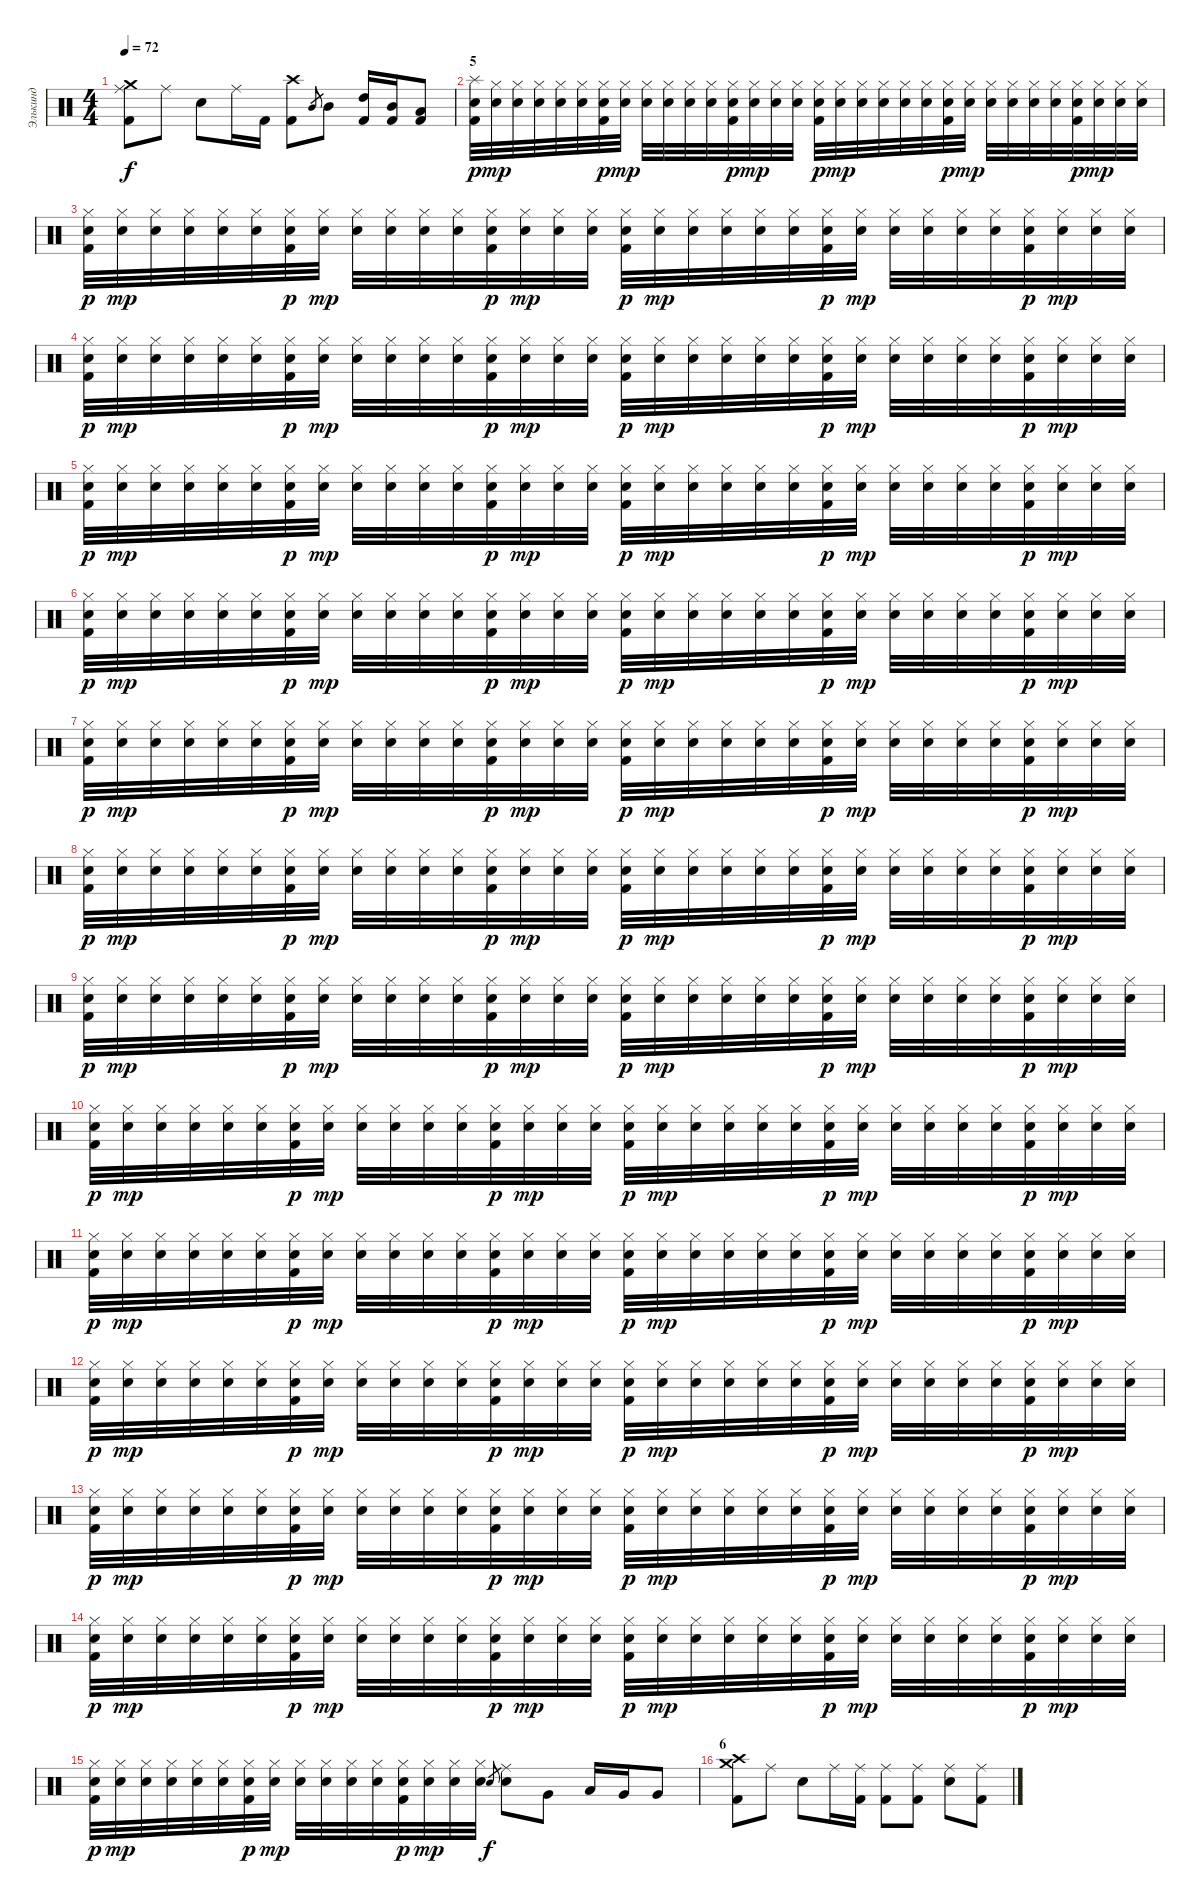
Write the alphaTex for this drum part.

\track ("Элькинд" "Элькинд") {instrument percussion}
\staff {score}
\articulation defaults
\ts (4 4)
\tempo 72
\clef neutral
\ks c
("Crash medium (hit)" "Ride (middle)" "Kick (hit) 2").8{dy f} "Ride (middle)".8 "Snare (hit) 2".8 "Ride (middle)".16 "Kick (hit) 2".16 ("Crash high (hit)" "Kick (hit) 2").8 "Mid Tom (hit)".8{gr} "Mid Tom (hit)".8 ("High Tom (hit)" "Kick (hit) 2").16 ("Mid Tom (hit)" "Kick (hit) 2").16 ("Low Tom (hit)" "Kick (hit) 2").8 |
\section ("" "5")
("Splash (hit)" "Snare (hit)"{x} "Kick (hit) 2").32{dy p volume 11} ("Hi-Hat (closed)" "Snare (hit)"{x}).32{dy mp} ("Hi-Hat (closed)" "Snare (hit)"{x}).32 ("Hi-Hat (closed)" "Snare (hit)"{x}).32 ("Hi-Hat (closed)" "Snare (hit)"{x}).32 ("Hi-Hat (closed)" "Snare (hit)"{x}).32 ("Hi-Hat (closed)" "Snare (hit)"{x} "Kick (hit) 2").32{dy p} ("Hi-Hat (closed)" "Snare (hit)"{x}).32{dy mp} ("Hi-Hat (closed)" "Snare (hit)"{x}).32 ("Hi-Hat (closed)" "Snare (hit)"{x}).32 ("Hi-Hat (closed)" "Snare (hit)"{x}).32 ("Hi-Hat (closed)" "Snare (hit)"{x}).32 ("Hi-Hat (closed)" "Snare (hit)"{x} "Kick (hit) 2").32{dy p} ("Hi-Hat (closed)" "Snare (hit)"{x}).32{dy mp} ("Hi-Hat (closed)" "Snare (hit)"{x}).32 ("Hi-Hat (closed)" "Snare (hit)"{x}).32 ("Hi-Hat (closed)" "Snare (hit)"{x} "Kick (hit) 2").32{dy p} ("Hi-Hat (closed)" "Snare (hit)"{x}).32{dy mp} ("Hi-Hat (closed)" "Snare (hit)"{x}).32 ("Hi-Hat (closed)" "Snare (hit)"{x}).32 ("Hi-Hat (closed)" "Snare (hit)"{x}).32 ("Hi-Hat (closed)" "Snare (hit)"{x}).32 ("Hi-Hat (closed)" "Snare (hit)"{x} "Kick (hit) 2").32{dy p} ("Hi-Hat (closed)" "Snare (hit)"{x}).32{dy mp} ("Hi-Hat (closed)" "Snare (hit)"{x}).32 ("Hi-Hat (closed)" "Snare (hit)"{x}).32 ("Hi-Hat (closed)" "Snare (hit)"{x}).32 ("Hi-Hat (closed)" "Snare (hit)"{x}).32 ("Hi-Hat (closed)" "Snare (hit)"{x} "Kick (hit) 2").32{dy p} ("Hi-Hat (closed)" "Snare (hit)"{x}).32{dy mp} ("Hi-Hat (closed)" "Snare (hit)"{x}).32 ("Hi-Hat (closed)" "Snare (hit)"{x}).32 |
("Hi-Hat (closed)" "Snare (hit)"{x} "Kick (hit) 2").32{dy p} ("Hi-Hat (closed)" "Snare (hit)"{x}).32{dy mp} ("Hi-Hat (closed)" "Snare (hit)"{x}).32 ("Hi-Hat (closed)" "Snare (hit)"{x}).32 ("Hi-Hat (closed)" "Snare (hit)"{x}).32 ("Hi-Hat (closed)" "Snare (hit)"{x}).32 ("Hi-Hat (closed)" "Snare (hit)"{x} "Kick (hit) 2").32{dy p} ("Hi-Hat (closed)" "Snare (hit)"{x}).32{dy mp} ("Hi-Hat (closed)" "Snare (hit)"{x}).32 ("Hi-Hat (closed)" "Snare (hit)"{x}).32 ("Hi-Hat (closed)" "Snare (hit)"{x}).32 ("Hi-Hat (closed)" "Snare (hit)"{x}).32 ("Hi-Hat (closed)" "Snare (hit)"{x} "Kick (hit) 2").32{dy p} ("Hi-Hat (closed)" "Snare (hit)"{x}).32{dy mp} ("Hi-Hat (closed)" "Snare (hit)"{x}).32 ("Hi-Hat (closed)" "Snare (hit)"{x}).32 ("Hi-Hat (closed)" "Snare (hit)"{x} "Kick (hit) 2").32{dy p} ("Hi-Hat (closed)" "Snare (hit)"{x}).32{dy mp} ("Hi-Hat (closed)" "Snare (hit)"{x}).32 ("Hi-Hat (closed)" "Snare (hit)"{x}).32 ("Hi-Hat (closed)" "Snare (hit)"{x}).32 ("Hi-Hat (closed)" "Snare (hit)"{x}).32 ("Hi-Hat (closed)" "Snare (hit)"{x} "Kick (hit) 2").32{dy p} ("Hi-Hat (closed)" "Snare (hit)"{x}).32{dy mp} ("Hi-Hat (closed)" "Snare (hit)"{x}).32 ("Hi-Hat (closed)" "Snare (hit)"{x}).32 ("Hi-Hat (closed)" "Snare (hit)"{x}).32 ("Hi-Hat (closed)" "Snare (hit)"{x}).32 ("Hi-Hat (closed)" "Snare (hit)"{x} "Kick (hit) 2").32{dy p} ("Hi-Hat (closed)" "Snare (hit)"{x}).32{dy mp} ("Hi-Hat (closed)" "Snare (hit)"{x}).32 ("Hi-Hat (closed)" "Snare (hit)"{x}).32 |
("Hi-Hat (closed)" "Snare (hit)"{x} "Kick (hit) 2").32{dy p} ("Hi-Hat (closed)" "Snare (hit)"{x}).32{dy mp} ("Hi-Hat (closed)" "Snare (hit)"{x}).32 ("Hi-Hat (closed)" "Snare (hit)"{x}).32 ("Hi-Hat (closed)" "Snare (hit)"{x}).32 ("Hi-Hat (closed)" "Snare (hit)"{x}).32 ("Hi-Hat (closed)" "Snare (hit)"{x} "Kick (hit) 2").32{dy p} ("Hi-Hat (closed)" "Snare (hit)"{x}).32{dy mp} ("Hi-Hat (closed)" "Snare (hit)"{x}).32 ("Hi-Hat (closed)" "Snare (hit)"{x}).32 ("Hi-Hat (closed)" "Snare (hit)"{x}).32 ("Hi-Hat (closed)" "Snare (hit)"{x}).32 ("Hi-Hat (closed)" "Snare (hit)"{x} "Kick (hit) 2").32{dy p} ("Hi-Hat (closed)" "Snare (hit)"{x}).32{dy mp} ("Hi-Hat (closed)" "Snare (hit)"{x}).32 ("Hi-Hat (closed)" "Snare (hit)"{x}).32 ("Hi-Hat (closed)" "Snare (hit)"{x} "Kick (hit) 2").32{dy p} ("Hi-Hat (closed)" "Snare (hit)"{x}).32{dy mp} ("Hi-Hat (closed)" "Snare (hit)"{x}).32 ("Hi-Hat (closed)" "Snare (hit)"{x}).32 ("Hi-Hat (closed)" "Snare (hit)"{x}).32 ("Hi-Hat (closed)" "Snare (hit)"{x}).32 ("Hi-Hat (closed)" "Snare (hit)"{x} "Kick (hit) 2").32{dy p} ("Hi-Hat (closed)" "Snare (hit)"{x}).32{dy mp} ("Hi-Hat (closed)" "Snare (hit)"{x}).32 ("Hi-Hat (closed)" "Snare (hit)"{x}).32 ("Hi-Hat (closed)" "Snare (hit)"{x}).32 ("Hi-Hat (closed)" "Snare (hit)"{x}).32 ("Hi-Hat (closed)" "Snare (hit)"{x} "Kick (hit) 2").32{dy p} ("Hi-Hat (closed)" "Snare (hit)"{x}).32{dy mp} ("Hi-Hat (closed)" "Snare (hit)"{x}).32 ("Hi-Hat (closed)" "Snare (hit)"{x}).32 |
("Hi-Hat (closed)" "Snare (hit)"{x} "Kick (hit) 2").32{dy p} ("Hi-Hat (closed)" "Snare (hit)"{x}).32{dy mp} ("Hi-Hat (closed)" "Snare (hit)"{x}).32 ("Hi-Hat (closed)" "Snare (hit)"{x}).32 ("Hi-Hat (closed)" "Snare (hit)"{x}).32 ("Hi-Hat (closed)" "Snare (hit)"{x}).32 ("Hi-Hat (closed)" "Snare (hit)"{x} "Kick (hit) 2").32{dy p} ("Hi-Hat (closed)" "Snare (hit)"{x}).32{dy mp} ("Hi-Hat (closed)" "Snare (hit)"{x}).32 ("Hi-Hat (closed)" "Snare (hit)"{x}).32 ("Hi-Hat (closed)" "Snare (hit)"{x}).32 ("Hi-Hat (closed)" "Snare (hit)"{x}).32 ("Hi-Hat (closed)" "Snare (hit)"{x} "Kick (hit) 2").32{dy p} ("Hi-Hat (closed)" "Snare (hit)"{x}).32{dy mp} ("Hi-Hat (closed)" "Snare (hit)"{x}).32 ("Hi-Hat (closed)" "Snare (hit)"{x}).32 ("Hi-Hat (closed)" "Snare (hit)"{x} "Kick (hit) 2").32{dy p} ("Hi-Hat (closed)" "Snare (hit)"{x}).32{dy mp} ("Hi-Hat (closed)" "Snare (hit)"{x}).32 ("Hi-Hat (closed)" "Snare (hit)"{x}).32 ("Hi-Hat (closed)" "Snare (hit)"{x}).32 ("Hi-Hat (closed)" "Snare (hit)"{x}).32 ("Hi-Hat (closed)" "Snare (hit)"{x} "Kick (hit) 2").32{dy p} ("Hi-Hat (closed)" "Snare (hit)"{x}).32{dy mp} ("Hi-Hat (closed)" "Snare (hit)"{x}).32 ("Hi-Hat (closed)" "Snare (hit)"{x}).32 ("Hi-Hat (closed)" "Snare (hit)"{x}).32 ("Hi-Hat (closed)" "Snare (hit)"{x}).32 ("Hi-Hat (closed)" "Snare (hit)"{x} "Kick (hit) 2").32{dy p} ("Hi-Hat (closed)" "Snare (hit)"{x}).32{dy mp} ("Hi-Hat (closed)" "Snare (hit)"{x}).32 ("Hi-Hat (closed)" "Snare (hit)"{x}).32 |
("Hi-Hat (closed)" "Snare (hit)"{x} "Kick (hit) 2").32{dy p} ("Hi-Hat (closed)" "Snare (hit)"{x}).32{dy mp} ("Hi-Hat (closed)" "Snare (hit)"{x}).32 ("Hi-Hat (closed)" "Snare (hit)"{x}).32 ("Hi-Hat (closed)" "Snare (hit)"{x}).32 ("Hi-Hat (closed)" "Snare (hit)"{x}).32 ("Hi-Hat (closed)" "Snare (hit)"{x} "Kick (hit) 2").32{dy p} ("Hi-Hat (closed)" "Snare (hit)"{x}).32{dy mp} ("Hi-Hat (closed)" "Snare (hit)"{x}).32 ("Hi-Hat (closed)" "Snare (hit)"{x}).32 ("Hi-Hat (closed)" "Snare (hit)"{x}).32 ("Hi-Hat (closed)" "Snare (hit)"{x}).32 ("Hi-Hat (closed)" "Snare (hit)"{x} "Kick (hit) 2").32{dy p} ("Hi-Hat (closed)" "Snare (hit)"{x}).32{dy mp} ("Hi-Hat (closed)" "Snare (hit)"{x}).32 ("Hi-Hat (closed)" "Snare (hit)"{x}).32 ("Hi-Hat (closed)" "Snare (hit)"{x} "Kick (hit) 2").32{dy p} ("Hi-Hat (closed)" "Snare (hit)"{x}).32{dy mp} ("Hi-Hat (closed)" "Snare (hit)"{x}).32 ("Hi-Hat (closed)" "Snare (hit)"{x}).32 ("Hi-Hat (closed)" "Snare (hit)"{x}).32 ("Hi-Hat (closed)" "Snare (hit)"{x}).32 ("Hi-Hat (closed)" "Snare (hit)"{x} "Kick (hit) 2").32{dy p} ("Hi-Hat (closed)" "Snare (hit)"{x}).32{dy mp} ("Hi-Hat (closed)" "Snare (hit)"{x}).32 ("Hi-Hat (closed)" "Snare (hit)"{x}).32 ("Hi-Hat (closed)" "Snare (hit)"{x}).32 ("Hi-Hat (closed)" "Snare (hit)"{x}).32 ("Hi-Hat (closed)" "Snare (hit)"{x} "Kick (hit) 2").32{dy p} ("Hi-Hat (closed)" "Snare (hit)"{x}).32{dy mp} ("Hi-Hat (closed)" "Snare (hit)"{x}).32 ("Hi-Hat (closed)" "Snare (hit)"{x}).32 |
("Hi-Hat (closed)" "Snare (hit)"{x} "Kick (hit) 2").32{dy p} ("Hi-Hat (closed)" "Snare (hit)"{x}).32{dy mp} ("Hi-Hat (closed)" "Snare (hit)"{x}).32 ("Hi-Hat (closed)" "Snare (hit)"{x}).32 ("Hi-Hat (closed)" "Snare (hit)"{x}).32 ("Hi-Hat (closed)" "Snare (hit)"{x}).32 ("Hi-Hat (closed)" "Snare (hit)"{x} "Kick (hit) 2").32{dy p} ("Hi-Hat (closed)" "Snare (hit)"{x}).32{dy mp} ("Hi-Hat (closed)" "Snare (hit)"{x}).32 ("Hi-Hat (closed)" "Snare (hit)"{x}).32 ("Hi-Hat (closed)" "Snare (hit)"{x}).32 ("Hi-Hat (closed)" "Snare (hit)"{x}).32 ("Hi-Hat (closed)" "Snare (hit)"{x} "Kick (hit) 2").32{dy p} ("Hi-Hat (closed)" "Snare (hit)"{x}).32{dy mp} ("Hi-Hat (closed)" "Snare (hit)"{x}).32 ("Hi-Hat (closed)" "Snare (hit)"{x}).32 ("Hi-Hat (closed)" "Snare (hit)"{x} "Kick (hit) 2").32{dy p} ("Hi-Hat (closed)" "Snare (hit)"{x}).32{dy mp} ("Hi-Hat (closed)" "Snare (hit)"{x}).32 ("Hi-Hat (closed)" "Snare (hit)"{x}).32 ("Hi-Hat (closed)" "Snare (hit)"{x}).32 ("Hi-Hat (closed)" "Snare (hit)"{x}).32 ("Hi-Hat (closed)" "Snare (hit)"{x} "Kick (hit) 2").32{dy p} ("Hi-Hat (closed)" "Snare (hit)"{x}).32{dy mp} ("Hi-Hat (closed)" "Snare (hit)"{x}).32 ("Hi-Hat (closed)" "Snare (hit)"{x}).32 ("Hi-Hat (closed)" "Snare (hit)"{x}).32 ("Hi-Hat (closed)" "Snare (hit)"{x}).32 ("Hi-Hat (closed)" "Snare (hit)"{x} "Kick (hit) 2").32{dy p} ("Hi-Hat (closed)" "Snare (hit)"{x}).32{dy mp} ("Hi-Hat (closed)" "Snare (hit)"{x}).32 ("Hi-Hat (closed)" "Snare (hit)"{x}).32 |
("Hi-Hat (closed)" "Snare (hit)"{x} "Kick (hit) 2").32{dy p} ("Hi-Hat (closed)" "Snare (hit)"{x}).32{dy mp} ("Hi-Hat (closed)" "Snare (hit)"{x}).32 ("Hi-Hat (closed)" "Snare (hit)"{x}).32 ("Hi-Hat (closed)" "Snare (hit)"{x}).32 ("Hi-Hat (closed)" "Snare (hit)"{x}).32 ("Hi-Hat (closed)" "Snare (hit)"{x} "Kick (hit) 2").32{dy p} ("Hi-Hat (closed)" "Snare (hit)"{x}).32{dy mp} ("Hi-Hat (closed)" "Snare (hit)"{x}).32 ("Hi-Hat (closed)" "Snare (hit)"{x}).32 ("Hi-Hat (closed)" "Snare (hit)"{x}).32 ("Hi-Hat (closed)" "Snare (hit)"{x}).32 ("Hi-Hat (closed)" "Snare (hit)"{x} "Kick (hit) 2").32{dy p} ("Hi-Hat (closed)" "Snare (hit)"{x}).32{dy mp} ("Hi-Hat (closed)" "Snare (hit)"{x}).32 ("Hi-Hat (closed)" "Snare (hit)"{x}).32 ("Hi-Hat (closed)" "Snare (hit)"{x} "Kick (hit) 2").32{dy p} ("Hi-Hat (closed)" "Snare (hit)"{x}).32{dy mp} ("Hi-Hat (closed)" "Snare (hit)"{x}).32 ("Hi-Hat (closed)" "Snare (hit)"{x}).32 ("Hi-Hat (closed)" "Snare (hit)"{x}).32 ("Hi-Hat (closed)" "Snare (hit)"{x}).32 ("Hi-Hat (closed)" "Snare (hit)"{x} "Kick (hit) 2").32{dy p} ("Hi-Hat (closed)" "Snare (hit)"{x}).32{dy mp} ("Hi-Hat (closed)" "Snare (hit)"{x}).32 ("Hi-Hat (closed)" "Snare (hit)"{x}).32 ("Hi-Hat (closed)" "Snare (hit)"{x}).32 ("Hi-Hat (closed)" "Snare (hit)"{x}).32 ("Hi-Hat (closed)" "Snare (hit)"{x} "Kick (hit) 2").32{dy p} ("Hi-Hat (closed)" "Snare (hit)"{x}).32{dy mp} ("Hi-Hat (closed)" "Snare (hit)"{x}).32 ("Hi-Hat (closed)" "Snare (hit)"{x}).32 |
("Hi-Hat (closed)" "Snare (hit)"{x} "Kick (hit) 2").32{dy p} ("Hi-Hat (closed)" "Snare (hit)"{x}).32{dy mp} ("Hi-Hat (closed)" "Snare (hit)"{x}).32 ("Hi-Hat (closed)" "Snare (hit)"{x}).32 ("Hi-Hat (closed)" "Snare (hit)"{x}).32 ("Hi-Hat (closed)" "Snare (hit)"{x}).32 ("Hi-Hat (closed)" "Snare (hit)"{x} "Kick (hit) 2").32{dy p} ("Hi-Hat (closed)" "Snare (hit)"{x}).32{dy mp} ("Hi-Hat (closed)" "Snare (hit)"{x}).32 ("Hi-Hat (closed)" "Snare (hit)"{x}).32 ("Hi-Hat (closed)" "Snare (hit)"{x}).32 ("Hi-Hat (closed)" "Snare (hit)"{x}).32 ("Hi-Hat (closed)" "Snare (hit)"{x} "Kick (hit) 2").32{dy p} ("Hi-Hat (closed)" "Snare (hit)"{x}).32{dy mp} ("Hi-Hat (closed)" "Snare (hit)"{x}).32 ("Hi-Hat (closed)" "Snare (hit)"{x}).32 ("Hi-Hat (closed)" "Snare (hit)"{x} "Kick (hit) 2").32{dy p} ("Hi-Hat (closed)" "Snare (hit)"{x}).32{dy mp} ("Hi-Hat (closed)" "Snare (hit)"{x}).32 ("Hi-Hat (closed)" "Snare (hit)"{x}).32 ("Hi-Hat (closed)" "Snare (hit)"{x}).32 ("Hi-Hat (closed)" "Snare (hit)"{x}).32 ("Hi-Hat (closed)" "Snare (hit)"{x} "Kick (hit) 2").32{dy p} ("Hi-Hat (closed)" "Snare (hit)"{x}).32{dy mp} ("Hi-Hat (closed)" "Snare (hit)"{x}).32 ("Hi-Hat (closed)" "Snare (hit)"{x}).32 ("Hi-Hat (closed)" "Snare (hit)"{x}).32 ("Hi-Hat (closed)" "Snare (hit)"{x}).32 ("Hi-Hat (closed)" "Snare (hit)"{x} "Kick (hit) 2").32{dy p} ("Hi-Hat (closed)" "Snare (hit)"{x}).32{dy mp} ("Hi-Hat (closed)" "Snare (hit)"{x}).32 ("Hi-Hat (closed)" "Snare (hit)"{x}).32 |
("Hi-Hat (closed)" "Snare (hit)"{x} "Kick (hit) 2").32{dy p} ("Hi-Hat (closed)" "Snare (hit)"{x}).32{dy mp} ("Hi-Hat (closed)" "Snare (hit)"{x}).32 ("Hi-Hat (closed)" "Snare (hit)"{x}).32 ("Hi-Hat (closed)" "Snare (hit)"{x}).32 ("Hi-Hat (closed)" "Snare (hit)"{x}).32 ("Hi-Hat (closed)" "Snare (hit)"{x} "Kick (hit) 2").32{dy p} ("Hi-Hat (closed)" "Snare (hit)"{x}).32{dy mp} ("Hi-Hat (closed)" "Snare (hit)"{x}).32 ("Hi-Hat (closed)" "Snare (hit)"{x}).32 ("Hi-Hat (closed)" "Snare (hit)"{x}).32 ("Hi-Hat (closed)" "Snare (hit)"{x}).32 ("Hi-Hat (closed)" "Snare (hit)"{x} "Kick (hit) 2").32{dy p} ("Hi-Hat (closed)" "Snare (hit)"{x}).32{dy mp} ("Hi-Hat (closed)" "Snare (hit)"{x}).32 ("Hi-Hat (closed)" "Snare (hit)"{x}).32 ("Hi-Hat (closed)" "Snare (hit)"{x} "Kick (hit) 2").32{dy p} ("Hi-Hat (closed)" "Snare (hit)"{x}).32{dy mp} ("Hi-Hat (closed)" "Snare (hit)"{x}).32 ("Hi-Hat (closed)" "Snare (hit)"{x}).32 ("Hi-Hat (closed)" "Snare (hit)"{x}).32 ("Hi-Hat (closed)" "Snare (hit)"{x}).32 ("Hi-Hat (closed)" "Snare (hit)"{x} "Kick (hit) 2").32{dy p} ("Hi-Hat (closed)" "Snare (hit)"{x}).32{dy mp} ("Hi-Hat (closed)" "Snare (hit)"{x}).32 ("Hi-Hat (closed)" "Snare (hit)"{x}).32 ("Hi-Hat (closed)" "Snare (hit)"{x}).32 ("Hi-Hat (closed)" "Snare (hit)"{x}).32 ("Hi-Hat (closed)" "Snare (hit)"{x} "Kick (hit) 2").32{dy p} ("Hi-Hat (closed)" "Snare (hit)"{x}).32{dy mp} ("Hi-Hat (closed)" "Snare (hit)"{x}).32 ("Hi-Hat (closed)" "Snare (hit)"{x}).32 |
("Hi-Hat (closed)" "Snare (hit)"{x} "Kick (hit) 2").32{dy p} ("Hi-Hat (closed)" "Snare (hit)"{x}).32{dy mp} ("Hi-Hat (closed)" "Snare (hit)"{x}).32 ("Hi-Hat (closed)" "Snare (hit)"{x}).32 ("Hi-Hat (closed)" "Snare (hit)"{x}).32 ("Hi-Hat (closed)" "Snare (hit)"{x}).32 ("Hi-Hat (closed)" "Snare (hit)"{x} "Kick (hit) 2").32{dy p} ("Hi-Hat (closed)" "Snare (hit)"{x}).32{dy mp} ("Hi-Hat (closed)" "Snare (hit)"{x}).32 ("Hi-Hat (closed)" "Snare (hit)"{x}).32 ("Hi-Hat (closed)" "Snare (hit)"{x}).32 ("Hi-Hat (closed)" "Snare (hit)"{x}).32 ("Hi-Hat (closed)" "Snare (hit)"{x} "Kick (hit) 2").32{dy p} ("Hi-Hat (closed)" "Snare (hit)"{x}).32{dy mp} ("Hi-Hat (closed)" "Snare (hit)"{x}).32 ("Hi-Hat (closed)" "Snare (hit)"{x}).32 ("Hi-Hat (closed)" "Snare (hit)"{x} "Kick (hit) 2").32{dy p} ("Hi-Hat (closed)" "Snare (hit)"{x}).32{dy mp} ("Hi-Hat (closed)" "Snare (hit)"{x}).32 ("Hi-Hat (closed)" "Snare (hit)"{x}).32 ("Hi-Hat (closed)" "Snare (hit)"{x}).32 ("Hi-Hat (closed)" "Snare (hit)"{x}).32 ("Hi-Hat (closed)" "Snare (hit)"{x} "Kick (hit) 2").32{dy p} ("Hi-Hat (closed)" "Snare (hit)"{x}).32{dy mp} ("Hi-Hat (closed)" "Snare (hit)"{x}).32 ("Hi-Hat (closed)" "Snare (hit)"{x}).32 ("Hi-Hat (closed)" "Snare (hit)"{x}).32 ("Hi-Hat (closed)" "Snare (hit)"{x}).32 ("Hi-Hat (closed)" "Snare (hit)"{x} "Kick (hit) 2").32{dy p} ("Hi-Hat (closed)" "Snare (hit)"{x}).32{dy mp} ("Hi-Hat (closed)" "Snare (hit)"{x}).32 ("Hi-Hat (closed)" "Snare (hit)"{x}).32 |
("Hi-Hat (closed)" "Snare (hit)"{x} "Kick (hit) 2").32{dy p} ("Hi-Hat (closed)" "Snare (hit)"{x}).32{dy mp} ("Hi-Hat (closed)" "Snare (hit)"{x}).32 ("Hi-Hat (closed)" "Snare (hit)"{x}).32 ("Hi-Hat (closed)" "Snare (hit)"{x}).32 ("Hi-Hat (closed)" "Snare (hit)"{x}).32 ("Hi-Hat (closed)" "Snare (hit)"{x} "Kick (hit) 2").32{dy p} ("Hi-Hat (closed)" "Snare (hit)"{x}).32{dy mp} ("Hi-Hat (closed)" "Snare (hit)"{x}).32 ("Hi-Hat (closed)" "Snare (hit)"{x}).32 ("Hi-Hat (closed)" "Snare (hit)"{x}).32 ("Hi-Hat (closed)" "Snare (hit)"{x}).32 ("Hi-Hat (closed)" "Snare (hit)"{x} "Kick (hit) 2").32{dy p} ("Hi-Hat (closed)" "Snare (hit)"{x}).32{dy mp} ("Hi-Hat (closed)" "Snare (hit)"{x}).32 ("Hi-Hat (closed)" "Snare (hit)"{x}).32 ("Hi-Hat (closed)" "Snare (hit)"{x} "Kick (hit) 2").32{dy p} ("Hi-Hat (closed)" "Snare (hit)"{x}).32{dy mp} ("Hi-Hat (closed)" "Snare (hit)"{x}).32 ("Hi-Hat (closed)" "Snare (hit)"{x}).32 ("Hi-Hat (closed)" "Snare (hit)"{x}).32 ("Hi-Hat (closed)" "Snare (hit)"{x}).32 ("Hi-Hat (closed)" "Snare (hit)"{x} "Kick (hit) 2").32{dy p} ("Hi-Hat (closed)" "Snare (hit)"{x}).32{dy mp} ("Hi-Hat (closed)" "Snare (hit)"{x}).32 ("Hi-Hat (closed)" "Snare (hit)"{x}).32 ("Hi-Hat (closed)" "Snare (hit)"{x}).32 ("Hi-Hat (closed)" "Snare (hit)"{x}).32 ("Hi-Hat (closed)" "Snare (hit)"{x} "Kick (hit) 2").32{dy p} ("Hi-Hat (closed)" "Snare (hit)"{x}).32{dy mp} ("Hi-Hat (closed)" "Snare (hit)"{x}).32 ("Hi-Hat (closed)" "Snare (hit)"{x}).32 |
("Hi-Hat (closed)" "Snare (hit)"{x} "Kick (hit) 2").32{dy p} ("Hi-Hat (closed)" "Snare (hit)"{x}).32{dy mp} ("Hi-Hat (closed)" "Snare (hit)"{x}).32 ("Hi-Hat (closed)" "Snare (hit)"{x}).32 ("Hi-Hat (closed)" "Snare (hit)"{x}).32 ("Hi-Hat (closed)" "Snare (hit)"{x}).32 ("Hi-Hat (closed)" "Snare (hit)"{x} "Kick (hit) 2").32{dy p} ("Hi-Hat (closed)" "Snare (hit)"{x}).32{dy mp} ("Hi-Hat (closed)" "Snare (hit)"{x}).32 ("Hi-Hat (closed)" "Snare (hit)"{x}).32 ("Hi-Hat (closed)" "Snare (hit)"{x}).32 ("Hi-Hat (closed)" "Snare (hit)"{x}).32 ("Hi-Hat (closed)" "Snare (hit)"{x} "Kick (hit) 2").32{dy p} ("Hi-Hat (closed)" "Snare (hit)"{x}).32{dy mp} ("Hi-Hat (closed)" "Snare (hit)"{x}).32 ("Hi-Hat (closed)" "Snare (hit)"{x}).32 ("Hi-Hat (closed)" "Snare (hit)"{x} "Kick (hit) 2").32{dy p} ("Hi-Hat (closed)" "Snare (hit)"{x}).32{dy mp} ("Hi-Hat (closed)" "Snare (hit)"{x}).32 ("Hi-Hat (closed)" "Snare (hit)"{x}).32 ("Hi-Hat (closed)" "Snare (hit)"{x}).32 ("Hi-Hat (closed)" "Snare (hit)"{x}).32 ("Hi-Hat (closed)" "Snare (hit)"{x} "Kick (hit) 2").32{dy p} ("Hi-Hat (closed)" "Snare (hit)"{x}).32{dy mp} ("Hi-Hat (closed)" "Snare (hit)"{x}).32 ("Hi-Hat (closed)" "Snare (hit)"{x}).32 ("Hi-Hat (closed)" "Snare (hit)"{x}).32 ("Hi-Hat (closed)" "Snare (hit)"{x}).32 ("Hi-Hat (closed)" "Snare (hit)"{x} "Kick (hit) 2").32{dy p} ("Hi-Hat (closed)" "Snare (hit)"{x}).32{dy mp} ("Hi-Hat (closed)" "Snare (hit)"{x}).32 ("Hi-Hat (closed)" "Snare (hit)"{x}).32 |
("Hi-Hat (closed)" "Snare (hit)"{x} "Kick (hit) 2").32{dy p} ("Hi-Hat (closed)" "Snare (hit)"{x}).32{dy mp} ("Hi-Hat (closed)" "Snare (hit)"{x}).32 ("Hi-Hat (closed)" "Snare (hit)"{x}).32 ("Hi-Hat (closed)" "Snare (hit)"{x}).32 ("Hi-Hat (closed)" "Snare (hit)"{x}).32 ("Hi-Hat (closed)" "Snare (hit)"{x} "Kick (hit) 2").32{dy p} ("Hi-Hat (closed)" "Snare (hit)"{x}).32{dy mp} ("Hi-Hat (closed)" "Snare (hit)"{x}).32 ("Hi-Hat (closed)" "Snare (hit)"{x}).32 ("Hi-Hat (closed)" "Snare (hit)"{x}).32 ("Hi-Hat (closed)" "Snare (hit)"{x}).32 ("Hi-Hat (closed)" "Snare (hit)"{x} "Kick (hit) 2").32{dy p} ("Hi-Hat (closed)" "Snare (hit)"{x}).32{dy mp} ("Hi-Hat (closed)" "Snare (hit)"{x}).32 ("Hi-Hat (closed)" "Snare (hit)"{x}).32 ("Hi-Hat (closed)" "Snare (hit)"{x} "Kick (hit) 2").32{dy p} ("Hi-Hat (closed)" "Snare (hit)"{x}).32{dy mp} ("Hi-Hat (closed)" "Snare (hit)"{x}).32 ("Hi-Hat (closed)" "Snare (hit)"{x}).32 ("Hi-Hat (closed)" "Snare (hit)"{x}).32 ("Hi-Hat (closed)" "Snare (hit)"{x}).32 ("Hi-Hat (closed)" "Snare (hit)"{x} "Kick (hit) 2").32{dy p} ("Hi-Hat (closed)" "Snare (hit)"{x}).32{dy mp} ("Hi-Hat (closed)" "Snare (hit)"{x}).32 ("Hi-Hat (closed)" "Snare (hit)"{x}).32 ("Hi-Hat (closed)" "Snare (hit)"{x}).32 ("Hi-Hat (closed)" "Snare (hit)"{x}).32 ("Hi-Hat (closed)" "Snare (hit)"{x} "Kick (hit) 2").32{dy p} ("Hi-Hat (closed)" "Snare (hit)"{x}).32{dy mp} ("Hi-Hat (closed)" "Snare (hit)"{x}).32 ("Hi-Hat (closed)" "Snare (hit)"{x}).32 |
("Hi-Hat (closed)" "Snare (hit)"{x} "Kick (hit) 2").32{dy p} ("Hi-Hat (closed)" "Snare (hit)"{x}).32{dy mp} ("Hi-Hat (closed)" "Snare (hit)"{x}).32 ("Hi-Hat (closed)" "Snare (hit)"{x}).32 ("Hi-Hat (closed)" "Snare (hit)"{x}).32 ("Hi-Hat (closed)" "Snare (hit)"{x}).32 ("Hi-Hat (closed)" "Snare (hit)"{x} "Kick (hit) 2").32{dy p} ("Hi-Hat (closed)" "Snare (hit)"{x}).32{dy mp} ("Hi-Hat (closed)" "Snare (hit)"{x}).32 ("Hi-Hat (closed)" "Snare (hit)"{x}).32 ("Hi-Hat (closed)" "Snare (hit)"{x}).32 ("Hi-Hat (closed)" "Snare (hit)"{x}).32 ("Hi-Hat (closed)" "Snare (hit)"{x} "Kick (hit) 2").32{dy p} ("Hi-Hat (closed)" "Snare (hit)"{x}).32{dy mp} ("Hi-Hat (closed)" "Snare (hit)"{x}).32 ("Hi-Hat (closed)" "Snare (hit)"{x}).32 "Snare (hit) 2".8{gr dy f} ("Ride (middle)" "Snare (hit) 2").8 "Very Low Tom (hit)".8 "Low Tom (hit)".16 "Very Low Tom (hit)".16 "Very Low Tom (hit)".8 |
\section ("" "6")
("Crash high (hit)" "Crash medium (hit)" "Kick (hit) 2").8 "Ride (middle)".8 "Snare (hit) 2".8 "Ride (middle)".16 ("Ride (middle)" "Kick (hit) 2").16 ("Ride (middle)" "Kick (hit) 2").8 ("Ride (middle)" "Kick (hit) 2").8 ("Ride (middle)" "Snare (hit) 2").8 ("Ride (middle)" "Kick (hit) 2").8
